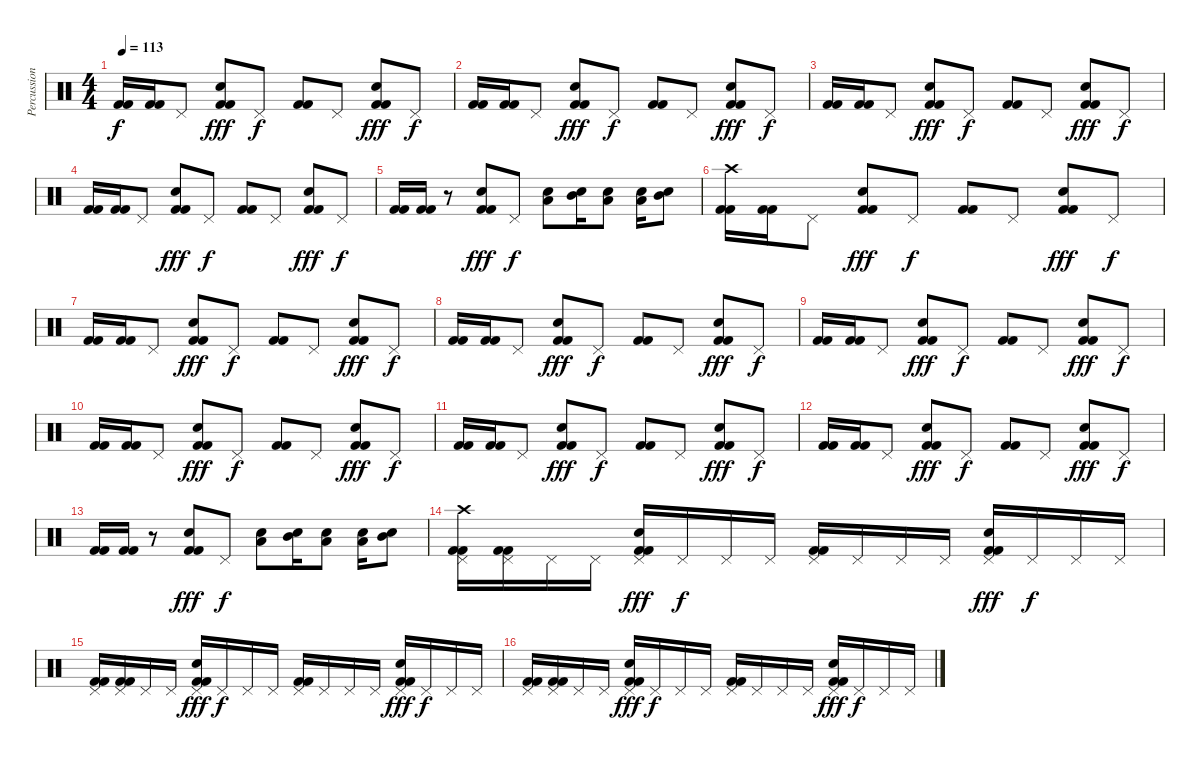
\track ("Percussion" "Percussion") {instrument percussion}
\staff {score}
\articulation defaults
\ts (4 4)
\tempo 113
\clef neutral
\ks c
("Kick (hit) 2" "Kick (hit) 2").16{dy f} ("Kick (hit) 2" "Kick (hit) 2").16 "Pedal Hi-Hat (hit)".8 ("Electric Snare (hit)" "Kick (hit) 2" "Kick (hit) 2").8{dy fff} "Pedal Hi-Hat (hit)".8{dy f} ("Kick (hit) 2" "Kick (hit) 2").8 "Pedal Hi-Hat (hit)".8 ("Electric Snare (hit)" "Kick (hit) 2" "Kick (hit) 2").8{dy fff} "Pedal Hi-Hat (hit)".8{dy f} |
("Kick (hit) 2" "Kick (hit) 2").16 ("Kick (hit) 2" "Kick (hit) 2").16 "Pedal Hi-Hat (hit)".8 ("Electric Snare (hit)" "Kick (hit) 2" "Kick (hit) 2").8{dy fff} "Pedal Hi-Hat (hit)".8{dy f} ("Kick (hit) 2" "Kick (hit) 2").8 "Pedal Hi-Hat (hit)".8 ("Electric Snare (hit)" "Kick (hit) 2" "Kick (hit) 2").8{dy fff} "Pedal Hi-Hat (hit)".8{dy f} |
("Kick (hit) 2" "Kick (hit) 2").16 ("Kick (hit) 2" "Kick (hit) 2").16 "Pedal Hi-Hat (hit)".8 ("Electric Snare (hit)" "Kick (hit) 2" "Kick (hit) 2").8{dy fff} "Pedal Hi-Hat (hit)".8{dy f} ("Kick (hit) 2" "Kick (hit) 2").8 "Pedal Hi-Hat (hit)".8 ("Electric Snare (hit)" "Kick (hit) 2" "Kick (hit) 2").8{dy fff} "Pedal Hi-Hat (hit)".8{dy f} |
("Kick (hit) 2" "Kick (hit) 2").16 ("Kick (hit) 2" "Kick (hit) 2").16 "Pedal Hi-Hat (hit)".8 ("Electric Snare (hit)" "Kick (hit) 2" "Kick (hit) 2").8{dy fff} "Pedal Hi-Hat (hit)".8{dy f} ("Kick (hit) 2" "Kick (hit) 2").8 "Pedal Hi-Hat (hit)".8 ("Electric Snare (hit)" "Kick (hit) 2" "Kick (hit) 2").8{dy fff} "Pedal Hi-Hat (hit)".8{dy f} |
("Kick (hit) 2" "Kick (hit) 2").16 ("Kick (hit) 2" "Kick (hit) 2").16 r.8 ("Electric Snare (hit)" "Kick (hit) 2" "Kick (hit) 2").8{dy fff} "Pedal Hi-Hat (hit)".8{dy f} ("Electric Snare (hit)" "Low Tom (hit)").8 ("Electric Snare (hit)" "Mid Tom (hit)").16 ("Electric Snare (hit)" "Low Tom (hit)").8 ("Electric Snare (hit)" "Low Tom (hit)").16 ("Electric Snare (hit)" "Mid Tom (hit)").8 |
("Crash high (hit)" "Kick (hit) 2" "Kick (hit) 2").16 ("Kick (hit) 2" "Kick (hit) 2").16 "Pedal Hi-Hat (hit)".8 ("Electric Snare (hit)" "Kick (hit) 2" "Kick (hit) 2").8{dy fff} "Pedal Hi-Hat (hit)".8{dy f} ("Kick (hit) 2" "Kick (hit) 2").8 "Pedal Hi-Hat (hit)".8 ("Electric Snare (hit)" "Kick (hit) 2" "Kick (hit) 2").8{dy fff} "Pedal Hi-Hat (hit)".8{dy f} |
("Kick (hit) 2" "Kick (hit) 2").16 ("Kick (hit) 2" "Kick (hit) 2").16 "Pedal Hi-Hat (hit)".8 ("Electric Snare (hit)" "Kick (hit) 2" "Kick (hit) 2").8{dy fff} "Pedal Hi-Hat (hit)".8{dy f} ("Kick (hit) 2" "Kick (hit) 2").8 "Pedal Hi-Hat (hit)".8 ("Electric Snare (hit)" "Kick (hit) 2" "Kick (hit) 2").8{dy fff} "Pedal Hi-Hat (hit)".8{dy f} |
("Kick (hit) 2" "Kick (hit) 2").16 ("Kick (hit) 2" "Kick (hit) 2").16 "Pedal Hi-Hat (hit)".8 ("Electric Snare (hit)" "Kick (hit) 2" "Kick (hit) 2").8{dy fff} "Pedal Hi-Hat (hit)".8{dy f} ("Kick (hit) 2" "Kick (hit) 2").8 "Pedal Hi-Hat (hit)".8 ("Electric Snare (hit)" "Kick (hit) 2" "Kick (hit) 2").8{dy fff} "Pedal Hi-Hat (hit)".8{dy f} |
("Kick (hit) 2" "Kick (hit) 2").16 ("Kick (hit) 2" "Kick (hit) 2").16 "Pedal Hi-Hat (hit)".8 ("Electric Snare (hit)" "Kick (hit) 2" "Kick (hit) 2").8{dy fff} "Pedal Hi-Hat (hit)".8{dy f} ("Kick (hit) 2" "Kick (hit) 2").8 "Pedal Hi-Hat (hit)".8 ("Electric Snare (hit)" "Kick (hit) 2" "Kick (hit) 2").8{dy fff} "Pedal Hi-Hat (hit)".8{dy f} |
("Kick (hit) 2" "Kick (hit) 2").16 ("Kick (hit) 2" "Kick (hit) 2").16 "Pedal Hi-Hat (hit)".8 ("Electric Snare (hit)" "Kick (hit) 2" "Kick (hit) 2").8{dy fff} "Pedal Hi-Hat (hit)".8{dy f} ("Kick (hit) 2" "Kick (hit) 2").8 "Pedal Hi-Hat (hit)".8 ("Electric Snare (hit)" "Kick (hit) 2" "Kick (hit) 2").8{dy fff} "Pedal Hi-Hat (hit)".8{dy f} |
("Kick (hit) 2" "Kick (hit) 2").16 ("Kick (hit) 2" "Kick (hit) 2").16 "Pedal Hi-Hat (hit)".8 ("Electric Snare (hit)" "Kick (hit) 2" "Kick (hit) 2").8{dy fff} "Pedal Hi-Hat (hit)".8{dy f} ("Kick (hit) 2" "Kick (hit) 2").8 "Pedal Hi-Hat (hit)".8 ("Electric Snare (hit)" "Kick (hit) 2" "Kick (hit) 2").8{dy fff} "Pedal Hi-Hat (hit)".8{dy f} |
("Kick (hit) 2" "Kick (hit) 2").16 ("Kick (hit) 2" "Kick (hit) 2").16 "Pedal Hi-Hat (hit)".8 ("Electric Snare (hit)" "Kick (hit) 2" "Kick (hit) 2").8{dy fff} "Pedal Hi-Hat (hit)".8{dy f} ("Kick (hit) 2" "Kick (hit) 2").8 "Pedal Hi-Hat (hit)".8 ("Electric Snare (hit)" "Kick (hit) 2" "Kick (hit) 2").8{dy fff} "Pedal Hi-Hat (hit)".8{dy f} |
("Kick (hit) 2" "Kick (hit) 2").16 ("Kick (hit) 2" "Kick (hit) 2").16 r.8 ("Electric Snare (hit)" "Kick (hit) 2" "Kick (hit) 2").8{dy fff} "Pedal Hi-Hat (hit)".8{dy f} ("Electric Snare (hit)" "Low Tom (hit)").8 ("Electric Snare (hit)" "Mid Tom (hit)").16 ("Electric Snare (hit)" "Low Tom (hit)").8 ("Electric Snare (hit)" "Low Tom (hit)").16 ("Electric Snare (hit)" "Mid Tom (hit)").8 |
("Pedal Hi-Hat (hit)" "Crash high (hit)" "Kick (hit) 2" "Kick (hit) 2").16 ("Pedal Hi-Hat (hit)" "Kick (hit) 2" "Kick (hit) 2").16 "Pedal Hi-Hat (hit)".16 "Pedal Hi-Hat (hit)".16 ("Pedal Hi-Hat (hit)" "Electric Snare (hit)" "Kick (hit) 2" "Kick (hit) 2").16{dy fff} "Pedal Hi-Hat (hit)".16{dy f} "Pedal Hi-Hat (hit)".16 "Pedal Hi-Hat (hit)".16 ("Pedal Hi-Hat (hit)" "Kick (hit) 2" "Kick (hit) 2").16 "Pedal Hi-Hat (hit)".16 "Pedal Hi-Hat (hit)".16 "Pedal Hi-Hat (hit)".16 ("Pedal Hi-Hat (hit)" "Electric Snare (hit)" "Kick (hit) 2" "Kick (hit) 2").16{dy fff} "Pedal Hi-Hat (hit)".16{dy f} "Pedal Hi-Hat (hit)".16 "Pedal Hi-Hat (hit)".16 |
("Pedal Hi-Hat (hit)" "Kick (hit) 2" "Kick (hit) 2").16 ("Pedal Hi-Hat (hit)" "Kick (hit) 2" "Kick (hit) 2").16 "Pedal Hi-Hat (hit)".16 "Pedal Hi-Hat (hit)".16 ("Pedal Hi-Hat (hit)" "Electric Snare (hit)" "Kick (hit) 2" "Kick (hit) 2").16{dy fff} "Pedal Hi-Hat (hit)".16{dy f} "Pedal Hi-Hat (hit)".16 "Pedal Hi-Hat (hit)".16 ("Pedal Hi-Hat (hit)" "Kick (hit) 2" "Kick (hit) 2").16 "Pedal Hi-Hat (hit)".16 "Pedal Hi-Hat (hit)".16 "Pedal Hi-Hat (hit)".16 ("Pedal Hi-Hat (hit)" "Electric Snare (hit)" "Kick (hit) 2" "Kick (hit) 2").16{dy fff} "Pedal Hi-Hat (hit)".16{dy f} "Pedal Hi-Hat (hit)".16 "Pedal Hi-Hat (hit)".16 |
("Pedal Hi-Hat (hit)" "Kick (hit) 2" "Kick (hit) 2").16 ("Pedal Hi-Hat (hit)" "Kick (hit) 2" "Kick (hit) 2").16 "Pedal Hi-Hat (hit)".16 "Pedal Hi-Hat (hit)".16 ("Pedal Hi-Hat (hit)" "Electric Snare (hit)" "Kick (hit) 2" "Kick (hit) 2").16{dy fff} "Pedal Hi-Hat (hit)".16{dy f} "Pedal Hi-Hat (hit)".16 "Pedal Hi-Hat (hit)".16 ("Pedal Hi-Hat (hit)" "Kick (hit) 2" "Kick (hit) 2").16 "Pedal Hi-Hat (hit)".16 "Pedal Hi-Hat (hit)".16 "Pedal Hi-Hat (hit)".16 ("Pedal Hi-Hat (hit)" "Electric Snare (hit)" "Kick (hit) 2" "Kick (hit) 2").16{dy fff} "Pedal Hi-Hat (hit)".16{dy f} "Pedal Hi-Hat (hit)".16 "Pedal Hi-Hat (hit)".16
